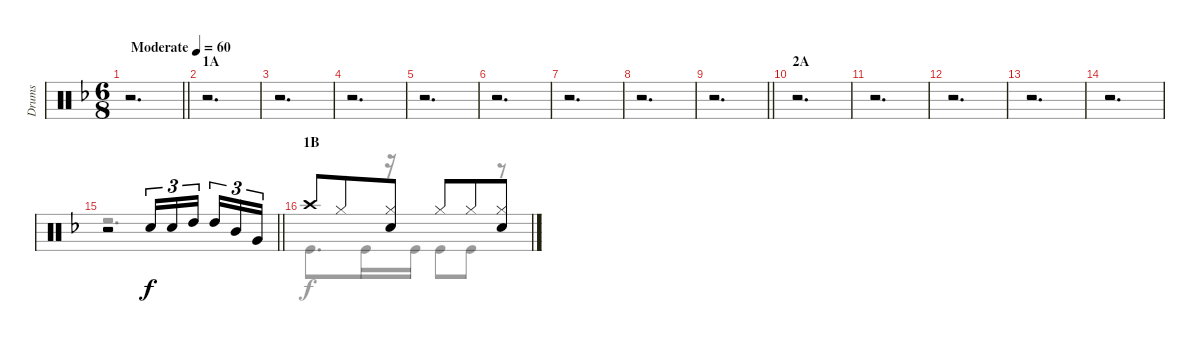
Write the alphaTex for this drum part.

\track ("Drums" "Drums") {instrument percussion}
\staff {score}
\articulation defaults
\voice
\ts (6 8)
\tempo (60 "Moderate")
\clef neutral
\barLineRight lightlight
\ks f
r.2{d dy f} |
\section ("" "1A")
r.2{d} |
r.2{d} |
r.2{d} |
r.2{d} |
r.2{d} |
r.2{d} |
r.2{d} |
\barLineRight lightlight
r.2{d} |
\section ("" "2A")
r.2{d} |
r.2{d} |
r.2{d} |
r.2{d} |
r.2{d} |
\barLineRight lightlight
r.2 "Snare (hit) 2".16{tu (3 2)} "Snare (hit) 2".16{tu (3 2)} "High Tom (hit)".16{tu (3 2) beam splitsecondary} "High Tom (hit)".16{tu (3 2)} "Mid Tom (hit)".16{tu (3 2)} "Very Low Tom (hit)".16{tu (3 2)} |
\section ("" "1B")
"Crash high (hit)".8 "Hi-Hat (closed)".8 ("Hi-Hat (closed)" "Snare (hit) 2").8 "Hi-Hat (closed)".8 "Hi-Hat (closed)".8 ("Hi-Hat (closed)" "Snare (hit) 2").8
\voice
\clef neutral
\ottava regular
\simile none
\barLineRight lightlight
\ks f
r.2{d dy f} |
r.2{d} |
r.2{d} |
r.2{d} |
r.2{d} |
r.2{d} |
r.2{d} |
r.2{d} |
\barLineRight lightlight
r.2{d} |
r.2{d} |
r.2{d} |
r.2{d} |
r.2{d} |
r.2{d} |
\barLineRight lightlight
r.2{d} |
"Kick (hit)".8{d} "Kick (hit)".16 r.16 "Kick (hit)".16 "Kick (hit)".8 "Kick (hit)".8 r.8
